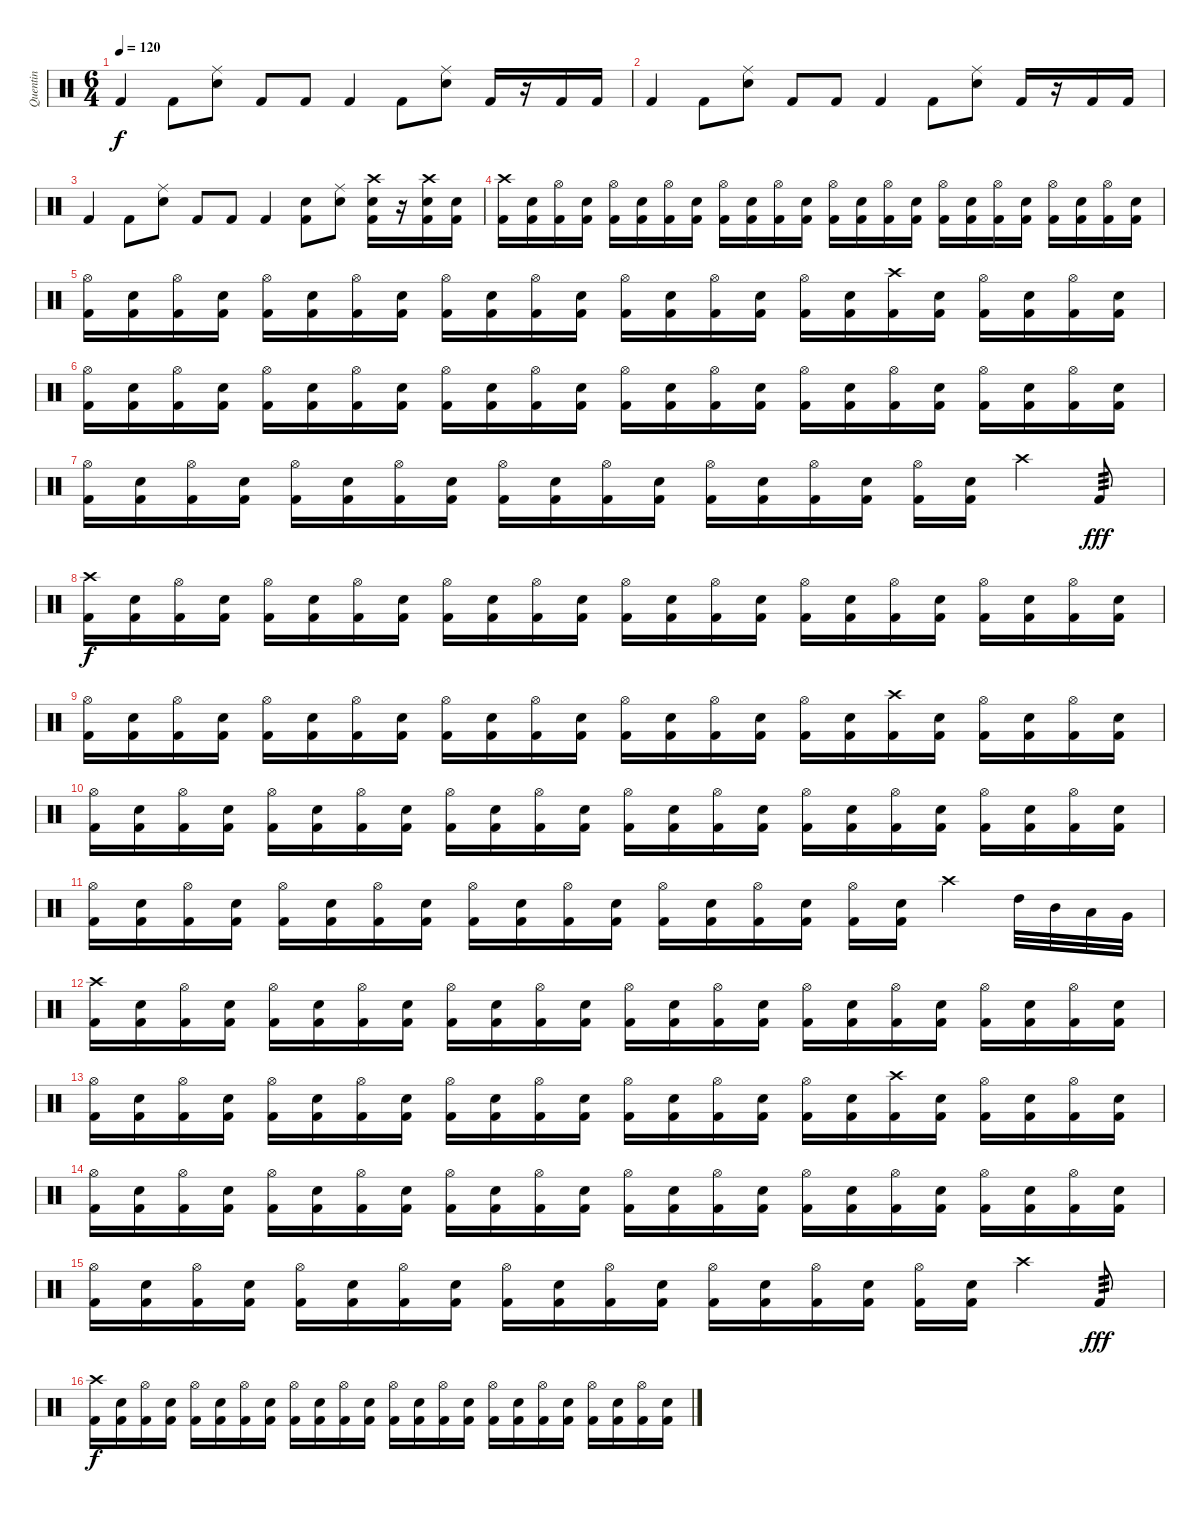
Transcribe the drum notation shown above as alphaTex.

\track ("Quentin" "Quentin") {instrument percussion}
\staff {score}
\articulation defaults
\ts (6 4)
\tempo 120
\clef neutral
\ks c "Kick (hit) 2".4{dy f} "Kick (hit) 2".8
("Ride (middle)" "Electric Snare (hit)").8 "Kick (hit) 2".8 "Kick (hit) 2".8 "Kick (hit) 2".4 "Kick (hit) 2".8 ("Ride (middle)" "Electric Snare (hit)").8 "Kick (hit) 2".16 r.16 "Kick (hit) 2".16 "Kick (hit) 2".16 |
"Kick (hit) 2".4 "Kick (hit) 2".8 ("Ride (middle)" "Electric Snare (hit)").8 "Kick (hit) 2".8 "Kick (hit) 2".8 "Kick (hit) 2".4 "Kick (hit) 2".8 ("Ride (middle)" "Electric Snare (hit)").8 "Kick (hit) 2".16 r.16 "Kick (hit) 2".16 "Kick (hit) 2".16 |
"Kick (hit) 2".4 "Kick (hit) 2".8 ("Ride (middle)" "Electric Snare (hit)").8 "Kick (hit) 2".8 "Kick (hit) 2".8 "Kick (hit) 2".4 ("Electric Snare (hit)" "Kick (hit) 2").8 ("Ride (middle)" "Electric Snare (hit)").8 ("Crash high (hit)" "Electric Snare (hit)" "Kick (hit) 2").16 r.16 ("Crash high (hit)" "Electric Snare (hit)" "Kick (hit) 2").16 ("Electric Snare (hit)" "Kick (hit) 2").16 |
("Crash high (hit)" "Kick (hit) 2").16 ("Snare (hit) 2" "Kick (hit) 2").16 ("Hi-Hat (open)" "Kick (hit) 2").16 ("Snare (hit) 2" "Kick (hit) 2").16 ("Hi-Hat (open)" "Kick (hit) 2").16 ("Snare (hit) 2" "Kick (hit) 2").16 ("Hi-Hat (open)" "Kick (hit) 2").16 ("Snare (hit) 2" "Kick (hit) 2").16 ("Hi-Hat (open)" "Kick (hit) 2").16 ("Snare (hit) 2" "Kick (hit) 2").16 ("Hi-Hat (open)" "Kick (hit) 2").16 ("Snare (hit) 2" "Kick (hit) 2").16 ("Hi-Hat (open)" "Kick (hit) 2").16 ("Snare (hit) 2" "Kick (hit) 2").16 ("Hi-Hat (open)" "Kick (hit) 2").16 ("Snare (hit) 2" "Kick (hit) 2").16 ("Hi-Hat (open)" "Kick (hit) 2").16 ("Snare (hit) 2" "Kick (hit) 2").16 ("Hi-Hat (open)" "Kick (hit) 2").16 ("Snare (hit) 2" "Kick (hit) 2").16 ("Hi-Hat (open)" "Kick (hit) 2").16 ("Snare (hit) 2" "Kick (hit) 2").16 ("Hi-Hat (open)" "Kick (hit) 2").16 ("Snare (hit) 2" "Kick (hit) 2").16 |
("Hi-Hat (open)" "Kick (hit) 2").16 ("Snare (hit) 2" "Kick (hit) 2").16 ("Hi-Hat (open)" "Kick (hit) 2").16 ("Snare (hit) 2" "Kick (hit) 2").16 ("Hi-Hat (open)" "Kick (hit) 2").16 ("Snare (hit) 2" "Kick (hit) 2").16 ("Hi-Hat (open)" "Kick (hit) 2").16 ("Snare (hit) 2" "Kick (hit) 2").16 ("Hi-Hat (open)" "Kick (hit) 2").16 ("Snare (hit) 2" "Kick (hit) 2").16 ("Hi-Hat (open)" "Kick (hit) 2").16 ("Snare (hit) 2" "Kick (hit) 2").16 ("Hi-Hat (open)" "Kick (hit) 2").16 ("Snare (hit) 2" "Kick (hit) 2").16 ("Hi-Hat (open)" "Kick (hit) 2").16 ("Snare (hit) 2" "Kick (hit) 2").16 ("Hi-Hat (open)" "Kick (hit) 2").16 ("Snare (hit) 2" "Kick (hit) 2").16 ("Crash high (hit)" "Kick (hit) 2").16 ("Snare (hit) 2" "Kick (hit) 2").16 ("Hi-Hat (open)" "Kick (hit) 2").16 ("Snare (hit) 2" "Kick (hit) 2").16 ("Hi-Hat (open)" "Kick (hit) 2").16 ("Snare (hit) 2" "Kick (hit) 2").16 |
("Hi-Hat (open)" "Kick (hit) 2").16 ("Snare (hit) 2" "Kick (hit) 2").16 ("Hi-Hat (open)" "Kick (hit) 2").16 ("Snare (hit) 2" "Kick (hit) 2").16 ("Hi-Hat (open)" "Kick (hit) 2").16 ("Snare (hit) 2" "Kick (hit) 2").16 ("Hi-Hat (open)" "Kick (hit) 2").16 ("Snare (hit) 2" "Kick (hit) 2").16 ("Hi-Hat (open)" "Kick (hit) 2").16 ("Snare (hit) 2" "Kick (hit) 2").16 ("Hi-Hat (open)" "Kick (hit) 2").16 ("Snare (hit) 2" "Kick (hit) 2").16 ("Hi-Hat (open)" "Kick (hit) 2").16 ("Snare (hit) 2" "Kick (hit) 2").16 ("Hi-Hat (open)" "Kick (hit) 2").16 ("Snare (hit) 2" "Kick (hit) 2").16 ("Hi-Hat (open)" "Kick (hit) 2").16 ("Snare (hit) 2" "Kick (hit) 2").16 ("Hi-Hat (open)" "Kick (hit) 2").16 ("Snare (hit) 2" "Kick (hit) 2").16 ("Hi-Hat (open)" "Kick (hit) 2").16 ("Snare (hit) 2" "Kick (hit) 2").16 ("Hi-Hat (open)" "Kick (hit) 2").16 ("Snare (hit) 2" "Kick (hit) 2").16 |
("Hi-Hat (open)" "Kick (hit) 2").16 ("Snare (hit) 2" "Kick (hit) 2").16 ("Hi-Hat (open)" "Kick (hit) 2").16 ("Snare (hit) 2" "Kick (hit) 2").16 ("Hi-Hat (open)" "Kick (hit) 2").16 ("Snare (hit) 2" "Kick (hit) 2").16 ("Hi-Hat (open)" "Kick (hit) 2").16 ("Snare (hit) 2" "Kick (hit) 2").16 ("Hi-Hat (open)" "Kick (hit) 2").16 ("Snare (hit) 2" "Kick (hit) 2").16 ("Hi-Hat (open)" "Kick (hit) 2").16 ("Snare (hit) 2" "Kick (hit) 2").16 ("Hi-Hat (open)" "Kick (hit) 2").16 ("Snare (hit) 2" "Kick (hit) 2").16 ("Hi-Hat (open)" "Kick (hit) 2").16 ("Snare (hit) 2" "Kick (hit) 2").16 ("Hi-Hat (open)" "Kick (hit) 2").16 ("Snare (hit) 2" "Kick (hit) 2").16 "Crash high (hit)".4 "Kick (hit) 2".8{tp 3 dy fff} |
("Crash high (hit)" "Kick (hit) 2").16{dy f} ("Snare (hit) 2" "Kick (hit) 2").16 ("Hi-Hat (open)" "Kick (hit) 2").16 ("Snare (hit) 2" "Kick (hit) 2").16 ("Hi-Hat (open)" "Kick (hit) 2").16 ("Snare (hit) 2" "Kick (hit) 2").16 ("Hi-Hat (open)" "Kick (hit) 2").16 ("Snare (hit) 2" "Kick (hit) 2").16 ("Hi-Hat (open)" "Kick (hit) 2").16 ("Snare (hit) 2" "Kick (hit) 2").16 ("Hi-Hat (open)" "Kick (hit) 2").16 ("Snare (hit) 2" "Kick (hit) 2").16 ("Hi-Hat (open)" "Kick (hit) 2").16 ("Snare (hit) 2" "Kick (hit) 2").16 ("Hi-Hat (open)" "Kick (hit) 2").16 ("Snare (hit) 2" "Kick (hit) 2").16 ("Hi-Hat (open)" "Kick (hit) 2").16 ("Snare (hit) 2" "Kick (hit) 2").16 ("Hi-Hat (open)" "Kick (hit) 2").16 ("Snare (hit) 2" "Kick (hit) 2").16 ("Hi-Hat (open)" "Kick (hit) 2").16 ("Snare (hit) 2" "Kick (hit) 2").16 ("Hi-Hat (open)" "Kick (hit) 2").16 ("Snare (hit) 2" "Kick (hit) 2").16 |
("Hi-Hat (open)" "Kick (hit) 2").16 ("Snare (hit) 2" "Kick (hit) 2").16 ("Hi-Hat (open)" "Kick (hit) 2").16 ("Snare (hit) 2" "Kick (hit) 2").16 ("Hi-Hat (open)" "Kick (hit) 2").16 ("Snare (hit) 2" "Kick (hit) 2").16 ("Hi-Hat (open)" "Kick (hit) 2").16 ("Snare (hit) 2" "Kick (hit) 2").16 ("Hi-Hat (open)" "Kick (hit) 2").16 ("Snare (hit) 2" "Kick (hit) 2").16 ("Hi-Hat (open)" "Kick (hit) 2").16 ("Snare (hit) 2" "Kick (hit) 2").16 ("Hi-Hat (open)" "Kick (hit) 2").16 ("Snare (hit) 2" "Kick (hit) 2").16 ("Hi-Hat (open)" "Kick (hit) 2").16 ("Snare (hit) 2" "Kick (hit) 2").16 ("Hi-Hat (open)" "Kick (hit) 2").16 ("Snare (hit) 2" "Kick (hit) 2").16 ("Crash high (hit)" "Kick (hit) 2").16 ("Snare (hit) 2" "Kick (hit) 2").16 ("Hi-Hat (open)" "Kick (hit) 2").16 ("Snare (hit) 2" "Kick (hit) 2").16 ("Hi-Hat (open)" "Kick (hit) 2").16 ("Snare (hit) 2" "Kick (hit) 2").16 |
("Hi-Hat (open)" "Kick (hit) 2").16 ("Snare (hit) 2" "Kick (hit) 2").16 ("Hi-Hat (open)" "Kick (hit) 2").16 ("Snare (hit) 2" "Kick (hit) 2").16 ("Hi-Hat (open)" "Kick (hit) 2").16 ("Snare (hit) 2" "Kick (hit) 2").16 ("Hi-Hat (open)" "Kick (hit) 2").16 ("Snare (hit) 2" "Kick (hit) 2").16 ("Hi-Hat (open)" "Kick (hit) 2").16 ("Snare (hit) 2" "Kick (hit) 2").16 ("Hi-Hat (open)" "Kick (hit) 2").16 ("Snare (hit) 2" "Kick (hit) 2").16 ("Hi-Hat (open)" "Kick (hit) 2").16 ("Snare (hit) 2" "Kick (hit) 2").16 ("Hi-Hat (open)" "Kick (hit) 2").16 ("Snare (hit) 2" "Kick (hit) 2").16 ("Hi-Hat (open)" "Kick (hit) 2").16 ("Snare (hit) 2" "Kick (hit) 2").16 ("Hi-Hat (open)" "Kick (hit) 2").16 ("Snare (hit) 2" "Kick (hit) 2").16 ("Hi-Hat (open)" "Kick (hit) 2").16 ("Snare (hit) 2" "Kick (hit) 2").16 ("Hi-Hat (open)" "Kick (hit) 2").16 ("Snare (hit) 2" "Kick (hit) 2").16 |
("Hi-Hat (open)" "Kick (hit) 2").16 ("Snare (hit) 2" "Kick (hit) 2").16 ("Hi-Hat (open)" "Kick (hit) 2").16 ("Snare (hit) 2" "Kick (hit) 2").16 ("Hi-Hat (open)" "Kick (hit) 2").16 ("Snare (hit) 2" "Kick (hit) 2").16 ("Hi-Hat (open)" "Kick (hit) 2").16 ("Snare (hit) 2" "Kick (hit) 2").16 ("Hi-Hat (open)" "Kick (hit) 2").16 ("Snare (hit) 2" "Kick (hit) 2").16 ("Hi-Hat (open)" "Kick (hit) 2").16 ("Snare (hit) 2" "Kick (hit) 2").16 ("Hi-Hat (open)" "Kick (hit) 2").16 ("Snare (hit) 2" "Kick (hit) 2").16 ("Hi-Hat (open)" "Kick (hit) 2").16 ("Snare (hit) 2" "Kick (hit) 2").16 ("Hi-Hat (open)" "Kick (hit) 2").16 ("Snare (hit) 2" "Kick (hit) 2").16 "Crash high (hit)".4 "High Tom (hit)".32 "Mid Tom (hit)".32 "Low Tom (hit)".32 "Very Low Tom (hit)".32 |
("Crash high (hit)" "Kick (hit) 2").16 ("Snare (hit) 2" "Kick (hit) 2").16 ("Hi-Hat (open)" "Kick (hit) 2").16 ("Snare (hit) 2" "Kick (hit) 2").16 ("Hi-Hat (open)" "Kick (hit) 2").16 ("Snare (hit) 2" "Kick (hit) 2").16 ("Hi-Hat (open)" "Kick (hit) 2").16 ("Snare (hit) 2" "Kick (hit) 2").16 ("Hi-Hat (open)" "Kick (hit) 2").16 ("Snare (hit) 2" "Kick (hit) 2").16 ("Hi-Hat (open)" "Kick (hit) 2").16 ("Snare (hit) 2" "Kick (hit) 2").16 ("Hi-Hat (open)" "Kick (hit) 2").16 ("Snare (hit) 2" "Kick (hit) 2").16 ("Hi-Hat (open)" "Kick (hit) 2").16 ("Snare (hit) 2" "Kick (hit) 2").16 ("Hi-Hat (open)" "Kick (hit) 2").16 ("Snare (hit) 2" "Kick (hit) 2").16 ("Hi-Hat (open)" "Kick (hit) 2").16 ("Snare (hit) 2" "Kick (hit) 2").16 ("Hi-Hat (open)" "Kick (hit) 2").16 ("Snare (hit) 2" "Kick (hit) 2").16 ("Hi-Hat (open)" "Kick (hit) 2").16 ("Snare (hit) 2" "Kick (hit) 2").16 |
("Hi-Hat (open)" "Kick (hit) 2").16 ("Snare (hit) 2" "Kick (hit) 2").16 ("Hi-Hat (open)" "Kick (hit) 2").16 ("Snare (hit) 2" "Kick (hit) 2").16 ("Hi-Hat (open)" "Kick (hit) 2").16 ("Snare (hit) 2" "Kick (hit) 2").16 ("Hi-Hat (open)" "Kick (hit) 2").16 ("Snare (hit) 2" "Kick (hit) 2").16 ("Hi-Hat (open)" "Kick (hit) 2").16 ("Snare (hit) 2" "Kick (hit) 2").16 ("Hi-Hat (open)" "Kick (hit) 2").16 ("Snare (hit) 2" "Kick (hit) 2").16 ("Hi-Hat (open)" "Kick (hit) 2").16 ("Snare (hit) 2" "Kick (hit) 2").16 ("Hi-Hat (open)" "Kick (hit) 2").16 ("Snare (hit) 2" "Kick (hit) 2").16 ("Hi-Hat (open)" "Kick (hit) 2").16 ("Snare (hit) 2" "Kick (hit) 2").16 ("Crash high (hit)" "Kick (hit) 2").16 ("Snare (hit) 2" "Kick (hit) 2").16 ("Hi-Hat (open)" "Kick (hit) 2").16 ("Snare (hit) 2" "Kick (hit) 2").16 ("Hi-Hat (open)" "Kick (hit) 2").16 ("Snare (hit) 2" "Kick (hit) 2").16 |
("Hi-Hat (open)" "Kick (hit) 2").16 ("Snare (hit) 2" "Kick (hit) 2").16 ("Hi-Hat (open)" "Kick (hit) 2").16 ("Snare (hit) 2" "Kick (hit) 2").16 ("Hi-Hat (open)" "Kick (hit) 2").16 ("Snare (hit) 2" "Kick (hit) 2").16 ("Hi-Hat (open)" "Kick (hit) 2").16 ("Snare (hit) 2" "Kick (hit) 2").16 ("Hi-Hat (open)" "Kick (hit) 2").16 ("Snare (hit) 2" "Kick (hit) 2").16 ("Hi-Hat (open)" "Kick (hit) 2").16 ("Snare (hit) 2" "Kick (hit) 2").16 ("Hi-Hat (open)" "Kick (hit) 2").16 ("Snare (hit) 2" "Kick (hit) 2").16 ("Hi-Hat (open)" "Kick (hit) 2").16 ("Snare (hit) 2" "Kick (hit) 2").16 ("Hi-Hat (open)" "Kick (hit) 2").16 ("Snare (hit) 2" "Kick (hit) 2").16 ("Hi-Hat (open)" "Kick (hit) 2").16 ("Snare (hit) 2" "Kick (hit) 2").16 ("Hi-Hat (open)" "Kick (hit) 2").16 ("Snare (hit) 2" "Kick (hit) 2").16 ("Hi-Hat (open)" "Kick (hit) 2").16 ("Snare (hit) 2" "Kick (hit) 2").16 |
("Hi-Hat (open)" "Kick (hit) 2").16 ("Snare (hit) 2" "Kick (hit) 2").16 ("Hi-Hat (open)" "Kick (hit) 2").16 ("Snare (hit) 2" "Kick (hit) 2").16 ("Hi-Hat (open)" "Kick (hit) 2").16 ("Snare (hit) 2" "Kick (hit) 2").16 ("Hi-Hat (open)" "Kick (hit) 2").16 ("Snare (hit) 2" "Kick (hit) 2").16 ("Hi-Hat (open)" "Kick (hit) 2").16 ("Snare (hit) 2" "Kick (hit) 2").16 ("Hi-Hat (open)" "Kick (hit) 2").16 ("Snare (hit) 2" "Kick (hit) 2").16 ("Hi-Hat (open)" "Kick (hit) 2").16 ("Snare (hit) 2" "Kick (hit) 2").16 ("Hi-Hat (open)" "Kick (hit) 2").16 ("Snare (hit) 2" "Kick (hit) 2").16 ("Hi-Hat (open)" "Kick (hit) 2").16 ("Snare (hit) 2" "Kick (hit) 2").16 "Crash high (hit)".4 "Kick (hit) 2".8{tp 3 dy fff} |
("Crash high (hit)" "Kick (hit) 2").16{dy f} ("Snare (hit) 2" "Kick (hit) 2").16 ("Hi-Hat (open)" "Kick (hit) 2").16 ("Snare (hit) 2" "Kick (hit) 2").16 ("Hi-Hat (open)" "Kick (hit) 2").16 ("Snare (hit) 2" "Kick (hit) 2").16 ("Hi-Hat (open)" "Kick (hit) 2").16 ("Snare (hit) 2" "Kick (hit) 2").16 ("Hi-Hat (open)" "Kick (hit) 2").16 ("Snare (hit) 2" "Kick (hit) 2").16 ("Hi-Hat (open)" "Kick (hit) 2").16 ("Snare (hit) 2" "Kick (hit) 2").16 ("Hi-Hat (open)" "Kick (hit) 2").16 ("Snare (hit) 2" "Kick (hit) 2").16 ("Hi-Hat (open)" "Kick (hit) 2").16 ("Snare (hit) 2" "Kick (hit) 2").16 ("Hi-Hat (open)" "Kick (hit) 2").16 ("Snare (hit) 2" "Kick (hit) 2").16 ("Hi-Hat (open)" "Kick (hit) 2").16 ("Snare (hit) 2" "Kick (hit) 2").16 ("Hi-Hat (open)" "Kick (hit) 2").16 ("Snare (hit) 2" "Kick (hit) 2").16 ("Hi-Hat (open)" "Kick (hit) 2").16 ("Snare (hit) 2" "Kick (hit) 2").16
